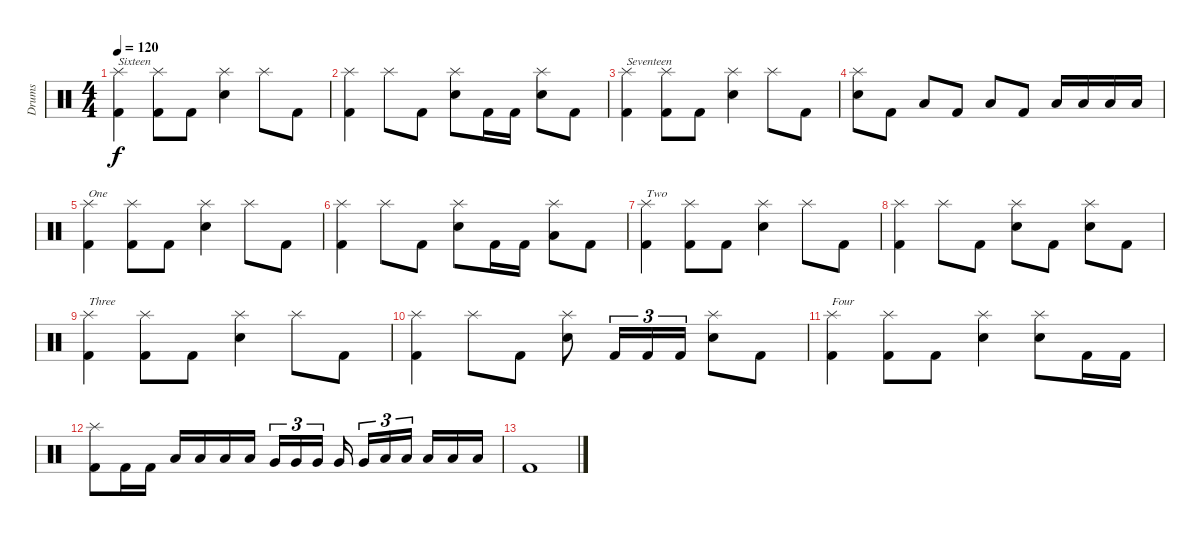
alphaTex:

\track ("Drums" "Drums") {instrument percussion}
\staff {score}
\articulation defaults
\ts (4 4)
\tempo 120
\clef neutral
\ks c
("Splash (hit)" "Kick (hit) 2").4{txt "Sixteen" dy f} ("Splash (hit)" "Kick (hit) 2").8 "Kick (hit) 2".8 ("Splash (hit)" "Snare (hit) 2").4 "Splash (hit)".8 "Kick (hit) 2".8 |
("Splash (hit)" "Kick (hit) 2").4 "Splash (hit)".8 "Kick (hit) 2".8 ("Splash (hit)" "Snare (hit) 2").8 "Kick (hit) 2".16 "Kick (hit) 2".16 ("Splash (hit)" "Snare (hit) 2").8 "Kick (hit) 2".8 |
("Splash (hit)" "Kick (hit) 2").4{txt "Seventeen"} ("Splash (hit)" "Kick (hit) 2").8 "Kick (hit) 2".8 ("Splash (hit)" "Snare (hit) 2").4 "Splash (hit)".8 "Kick (hit) 2".8 |
("Splash (hit)" "Snare (hit) 2").8 "Kick (hit) 2".8 "Low Tom (hit)".8 "Kick (hit) 2".8 "Low Tom (hit)".8 "Kick (hit) 2".8 "Low Tom (hit)".16 "Low Tom (hit)".16 "Low Tom (hit)".16 "Low Tom (hit)".16 |
("Splash (hit)" "Kick (hit) 2").4{txt "One"} ("Splash (hit)" "Kick (hit) 2").8 "Kick (hit) 2".8 ("Splash (hit)" "Snare (hit) 2").4 "Splash (hit)".8 "Kick (hit) 2".8 |
("Splash (hit)" "Kick (hit) 2").4 "Splash (hit)".8 "Kick (hit) 2".8 ("Splash (hit)" "Snare (hit) 2").8 "Kick (hit) 2".16 "Kick (hit) 2".16 ("Splash (hit)" "Low Tom (hit)").8 "Kick (hit) 2".8 |
("Splash (hit)" "Kick (hit) 2").4{txt "Two"} ("Splash (hit)" "Kick (hit) 2").8 "Kick (hit) 2".8 ("Splash (hit)" "Snare (hit) 2").4 "Splash (hit)".8 "Kick (hit) 2".8 |
("Splash (hit)" "Kick (hit) 2").4 "Splash (hit)".8 "Kick (hit) 2".8 ("Splash (hit)" "Snare (hit) 2").8 "Kick (hit) 2".8 ("Splash (hit)" "Snare (hit) 2").8 "Kick (hit) 2".8 |
("Splash (hit)" "Kick (hit) 2").4{txt "Three"} ("Splash (hit)" "Kick (hit) 2").8 "Kick (hit) 2".8 ("Splash (hit)" "Snare (hit) 2").4 "Splash (hit)".8 "Kick (hit) 2".8 |
("Splash (hit)" "Kick (hit) 2").4 "Splash (hit)".8 "Kick (hit) 2".8 ("Splash (hit)" "Snare (hit) 2").8 "Kick (hit) 2".16{tu (3 2)} "Kick (hit) 2".16{tu (3 2)} "Kick (hit) 2".16{tu (3 2)} ("Splash (hit)" "Snare (hit) 2").8 "Kick (hit) 2".8 |
("Splash (hit)" "Kick (hit) 2").4{txt "Four"} ("Splash (hit)" "Kick (hit) 2").8 "Kick (hit) 2".8 ("Splash (hit)" "Snare (hit) 2").4 ("Splash (hit)" "Snare (hit) 2").8 "Kick (hit) 2".16 "Kick (hit) 2".16 |
("Splash (hit)" "Kick (hit) 2").8 "Kick (hit) 2".16 "Kick (hit) 2".16 "Low Tom (hit)".16 "Low Tom (hit)".16 "Low Tom (hit)".16 "Low Tom (hit)".16 "Very Low Tom (hit)".16{tu (3 2)} "Very Low Tom (hit)".16{tu (3 2)} "Very Low Tom (hit)".16{tu (3 2)} "Very Low Tom (hit)".16 "Very Low Tom (hit)".16{tu (3 2)} "Low Floor Tom (hit)".16{tu (3 2)} "Low Floor Tom (hit)".16{tu (3 2)} "Low Floor Tom (hit)".16 "Low Floor Tom (hit)".16 "Low Floor Tom (hit)".16 |
"Kick (hit) 2".1
